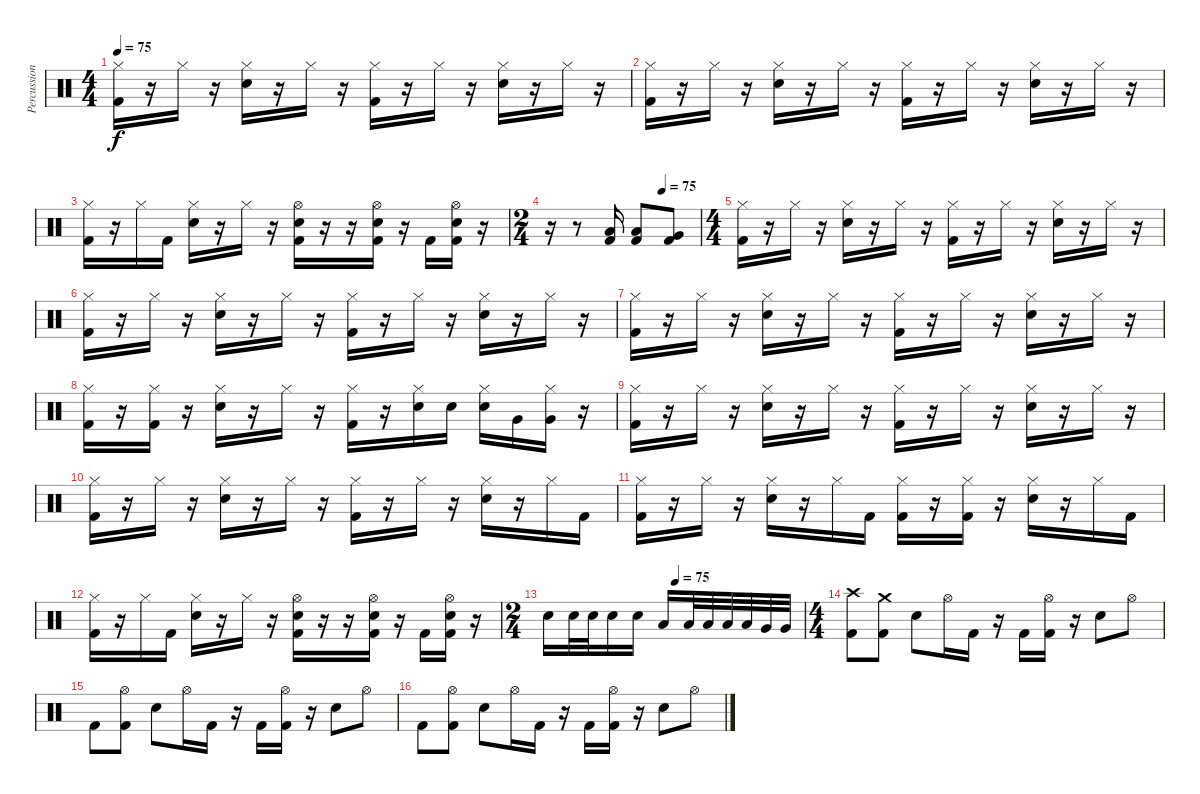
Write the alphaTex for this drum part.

\track ("Percussion" "Percussion") {instrument percussion}
\staff {score}
\articulation defaults
\ts (4 4)
\tempo 75
\clef neutral
\ks c
("Hi-Hat (closed)" "Kick (hit) 2").16{dy f} r.16 "Hi-Hat (closed)".16 r.16 ("Hi-Hat (closed)" "Electric Snare (hit)").16 r.16 "Hi-Hat (closed)".16 r.16 ("Hi-Hat (closed)" "Kick (hit) 2").16 r.16 "Hi-Hat (closed)".16 r.16 ("Hi-Hat (closed)" "Electric Snare (hit)").16 r.16 "Hi-Hat (closed)".16 r.16 |
("Hi-Hat (closed)" "Kick (hit) 2").16 r.16 "Hi-Hat (closed)".16 r.16 ("Hi-Hat (closed)" "Electric Snare (hit)").16 r.16 "Hi-Hat (closed)".16 r.16 ("Hi-Hat (closed)" "Kick (hit) 2").16 r.16 "Hi-Hat (closed)".16 r.16 ("Hi-Hat (closed)" "Electric Snare (hit)").16 r.16 "Hi-Hat (closed)".16 r.16 |
("Hi-Hat (closed)" "Kick (hit) 2").16 r.16 "Hi-Hat (closed)".16 "Kick (hit) 2".16 ("Hi-Hat (closed)" "Electric Snare (hit)").16 r.16 "Hi-Hat (closed)".16 r.16 ("Hi-Hat (open)" "Electric Snare (hit)" "Kick (hit) 2").16 r.16 r.16 ("Hi-Hat (open)" "Electric Snare (hit)" "Kick (hit) 2").16 r.16 "Kick (hit) 2".16 ("Hi-Hat (open)" "Electric Snare (hit)" "Kick (hit) 2").16 r.16 |
\ts (2 4)
\tempo (75 0.75)
r.16 r.8 ("Low Tom (hit)" "Kick (hit) 2").16 ("Low Tom (hit)" "Kick (hit) 2").8 ("Very Low Tom (hit)" "Kick (hit) 2").8 |
\ts (4 4)
("Hi-Hat (closed)" "Kick (hit) 2").16 r.16 "Hi-Hat (closed)".16 r.16 ("Hi-Hat (closed)" "Electric Snare (hit)").16 r.16 "Hi-Hat (closed)".16 r.16 ("Hi-Hat (closed)" "Kick (hit) 2").16 r.16 "Hi-Hat (closed)".16 r.16 ("Hi-Hat (closed)" "Electric Snare (hit)").16 r.16 "Hi-Hat (closed)".16 r.16 |
("Hi-Hat (closed)" "Kick (hit) 2").16 r.16 "Hi-Hat (closed)".16 r.16 ("Hi-Hat (closed)" "Electric Snare (hit)").16 r.16 "Hi-Hat (closed)".16 r.16 ("Hi-Hat (closed)" "Kick (hit) 2").16 r.16 "Hi-Hat (closed)".16 r.16 ("Hi-Hat (closed)" "Electric Snare (hit)").16 r.16 "Hi-Hat (closed)".16 r.16 |
("Hi-Hat (closed)" "Kick (hit) 2").16 r.16 "Hi-Hat (closed)".16 r.16 ("Hi-Hat (closed)" "Electric Snare (hit)").16 r.16 "Hi-Hat (closed)".16 r.16 ("Hi-Hat (closed)" "Kick (hit) 2").16 r.16 "Hi-Hat (closed)".16 r.16 ("Hi-Hat (closed)" "Electric Snare (hit)").16 r.16 "Hi-Hat (closed)".16 r.16 |
("Hi-Hat (closed)" "Kick (hit) 2").16 r.16 ("Hi-Hat (closed)" "Kick (hit) 2").16 r.16 ("Hi-Hat (closed)" "Electric Snare (hit)").16 r.16 "Hi-Hat (closed)".16 r.16 ("Hi-Hat (closed)" "Kick (hit) 2").16 r.16 ("Hi-Hat (closed)" "Electric Snare (hit)").16 "Electric Snare (hit)".16 ("Hi-Hat (closed)" "Electric Snare (hit)").16 "Very Low Tom (hit)".16 ("Hi-Hat (closed)" "Very Low Tom (hit)").16 r.16 |
("Hi-Hat (closed)" "Kick (hit) 2").16 r.16 "Hi-Hat (closed)".16 r.16 ("Hi-Hat (closed)" "Electric Snare (hit)").16 r.16 "Hi-Hat (closed)".16 r.16 ("Hi-Hat (closed)" "Kick (hit) 2").16 r.16 "Hi-Hat (closed)".16 r.16 ("Hi-Hat (closed)" "Electric Snare (hit)").16 r.16 "Hi-Hat (closed)".16 r.16 |
("Hi-Hat (closed)" "Kick (hit) 2").16 r.16 "Hi-Hat (closed)".16 r.16 ("Hi-Hat (closed)" "Electric Snare (hit)").16 r.16 "Hi-Hat (closed)".16 r.16 ("Hi-Hat (closed)" "Kick (hit) 2").16 r.16 "Hi-Hat (closed)".16 r.16 ("Hi-Hat (closed)" "Electric Snare (hit)").16 r.16 "Hi-Hat (closed)".16 "Kick (hit) 2".16 |
("Hi-Hat (closed)" "Kick (hit) 2").16 r.16 "Hi-Hat (closed)".16 r.16 ("Hi-Hat (closed)" "Electric Snare (hit)").16 r.16 "Hi-Hat (closed)".16 "Kick (hit) 2".16 ("Hi-Hat (closed)" "Kick (hit) 2").16 r.16 ("Hi-Hat (closed)" "Kick (hit) 2").16 r.16 ("Hi-Hat (closed)" "Electric Snare (hit)").16 r.16 "Hi-Hat (closed)".16 "Kick (hit) 2".16 |
("Hi-Hat (closed)" "Kick (hit) 2").16 r.16 "Hi-Hat (closed)".16 "Kick (hit) 2".16 ("Hi-Hat (closed)" "Electric Snare (hit)").16 r.16 "Hi-Hat (closed)".16 r.16 ("Hi-Hat (open)" "Electric Snare (hit)" "Kick (hit) 2").16 r.16 r.16 ("Hi-Hat (open)" "Electric Snare (hit)" "Kick (hit) 2").16 r.16 "Kick (hit) 2".16 ("Hi-Hat (open)" "Electric Snare (hit)" "Kick (hit) 2").16 r.16 |
\ts (2 4)
\tempo (75 0.5)
"Electric Snare (hit)".16 "Electric Snare (hit)".32 "Electric Snare (hit)".32 "Electric Snare (hit)".16 "Electric Snare (hit)".16 "Low Tom (hit)".16 "Low Tom (hit)".32 "Low Tom (hit)".32 "Low Tom (hit)".32 "Low Tom (hit)".32 "Very Low Tom (hit)".32 "Very Low Tom (hit)".32 |
\ts (4 4)
("Crash high (hit)" "Kick (hit) 2").8 ("Crash medium (hit)" "Kick (hit) 2").8 "Electric Snare (hit)".8 "Hi-Hat (open)".16 "Kick (hit) 2".16 r.16 "Kick (hit) 2".16 ("Hi-Hat (open)" "Kick (hit) 2").16 r.16 "Electric Snare (hit)".8 "Hi-Hat (open)".8 |
"Kick (hit) 2".8 ("Hi-Hat (open)" "Kick (hit) 2").8 "Electric Snare (hit)".8 "Hi-Hat (open)".16 "Kick (hit) 2".16 r.16 "Kick (hit) 2".16 ("Hi-Hat (open)" "Kick (hit) 2").16 r.16 "Electric Snare (hit)".8 "Hi-Hat (open)".8 |
"Kick (hit) 2".8 ("Hi-Hat (open)" "Kick (hit) 2").8 "Electric Snare (hit)".8 "Hi-Hat (open)".16 "Kick (hit) 2".16 r.16 "Kick (hit) 2".16 ("Hi-Hat (open)" "Kick (hit) 2").16 r.16 "Electric Snare (hit)".8 "Hi-Hat (open)".8
